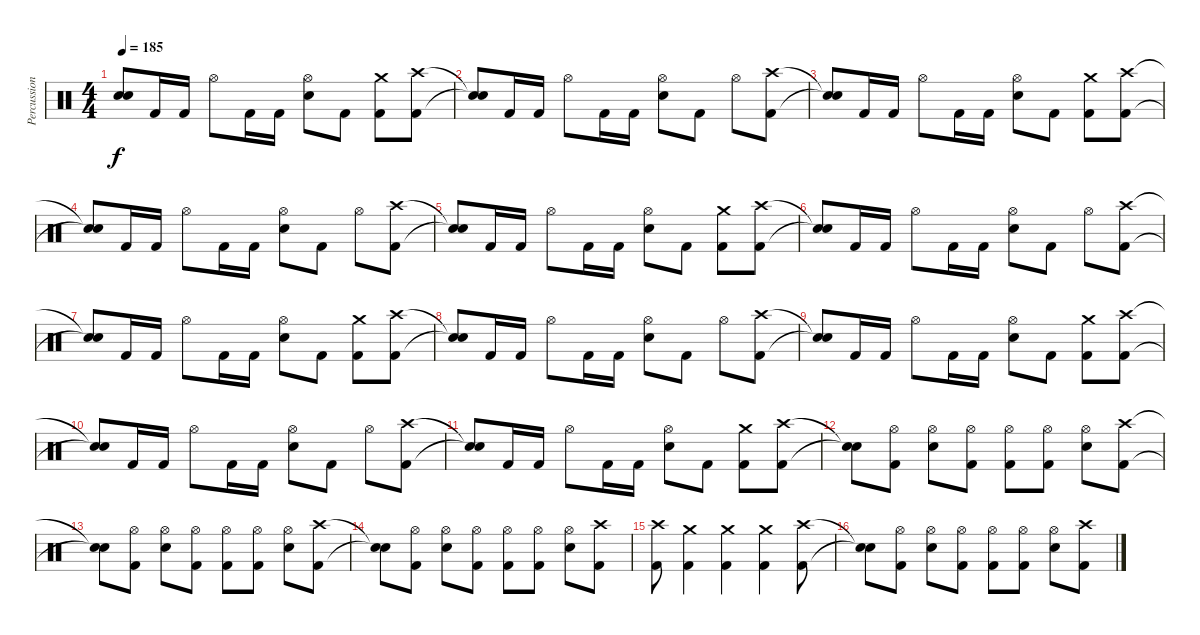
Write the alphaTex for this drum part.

\track ("Percussion" "Percussion") {instrument percussion}
\staff {score}
\articulation defaults
\ts (4 4)
\tempo 185
\clef neutral
\ks c
("Snare (hit)"{t} "Snare (hit)"{t}).8{dy f} "Kick (hit) 2".16 "Kick (hit) 2".16 "Hi-Hat (open)".8 "Kick (hit) 2".16 "Kick (hit) 2".16 ("Hi-Hat (open)" "Electric Snare (hit)").8 "Kick (hit) 2".8 ("Crash medium (hit)" "Kick (hit) 2").8 ("Crash high (hit)" "Kick (hit) 2").8 |
("Snare (hit)"{t} "Snare (hit)"{t}).8 "Kick (hit) 2".16 "Kick (hit) 2".16 "Hi-Hat (open)".8 "Kick (hit) 2".16 "Kick (hit) 2".16 ("Hi-Hat (open)" "Electric Snare (hit)").8 "Kick (hit) 2".8 "Hi-Hat (open)".8 ("Crash high (hit)" "Kick (hit) 2").8 |
("Snare (hit)"{t} "Snare (hit)"{t}).8 "Kick (hit) 2".16 "Kick (hit) 2".16 "Hi-Hat (open)".8 "Kick (hit) 2".16 "Kick (hit) 2".16 ("Hi-Hat (open)" "Electric Snare (hit)").8 "Kick (hit) 2".8 ("Crash medium (hit)" "Kick (hit) 2").8 ("Crash high (hit)" "Kick (hit) 2").8 |
("Snare (hit)"{t} "Snare (hit)"{t}).8 "Kick (hit) 2".16 "Kick (hit) 2".16 "Hi-Hat (open)".8 "Kick (hit) 2".16 "Kick (hit) 2".16 ("Hi-Hat (open)" "Electric Snare (hit)").8 "Kick (hit) 2".8 "Hi-Hat (open)".8 ("Crash high (hit)" "Kick (hit) 2").8 |
("Snare (hit)"{t} "Snare (hit)"{t}).8 "Kick (hit) 2".16 "Kick (hit) 2".16 "Hi-Hat (open)".8 "Kick (hit) 2".16 "Kick (hit) 2".16 ("Hi-Hat (open)" "Electric Snare (hit)").8 "Kick (hit) 2".8 ("Crash medium (hit)" "Kick (hit) 2").8 ("Crash high (hit)" "Kick (hit) 2").8 |
("Snare (hit)"{t} "Snare (hit)"{t}).8 "Kick (hit) 2".16 "Kick (hit) 2".16 "Hi-Hat (open)".8 "Kick (hit) 2".16 "Kick (hit) 2".16 ("Hi-Hat (open)" "Electric Snare (hit)").8 "Kick (hit) 2".8 "Hi-Hat (open)".8 ("Crash high (hit)" "Kick (hit) 2").8 |
("Snare (hit)"{t} "Snare (hit)"{t}).8 "Kick (hit) 2".16 "Kick (hit) 2".16 "Hi-Hat (open)".8 "Kick (hit) 2".16 "Kick (hit) 2".16 ("Hi-Hat (open)" "Electric Snare (hit)").8 "Kick (hit) 2".8 ("Crash medium (hit)" "Kick (hit) 2").8 ("Crash high (hit)" "Kick (hit) 2").8 |
("Snare (hit)"{t} "Snare (hit)"{t}).8 "Kick (hit) 2".16 "Kick (hit) 2".16 "Hi-Hat (open)".8 "Kick (hit) 2".16 "Kick (hit) 2".16 ("Hi-Hat (open)" "Electric Snare (hit)").8 "Kick (hit) 2".8 "Hi-Hat (open)".8 ("Crash high (hit)" "Kick (hit) 2").8 |
("Snare (hit)"{t} "Snare (hit)"{t}).8 "Kick (hit) 2".16 "Kick (hit) 2".16 "Hi-Hat (open)".8 "Kick (hit) 2".16 "Kick (hit) 2".16 ("Hi-Hat (open)" "Electric Snare (hit)").8 "Kick (hit) 2".8 ("Crash medium (hit)" "Kick (hit) 2").8 ("Crash high (hit)" "Kick (hit) 2").8 |
("Snare (hit)"{t} "Snare (hit)"{t}).8 "Kick (hit) 2".16 "Kick (hit) 2".16 "Hi-Hat (open)".8 "Kick (hit) 2".16 "Kick (hit) 2".16 ("Hi-Hat (open)" "Electric Snare (hit)").8 "Kick (hit) 2".8 "Hi-Hat (open)".8 ("Crash high (hit)" "Kick (hit) 2").8 |
("Snare (hit)"{t} "Snare (hit)"{t}).8 "Kick (hit) 2".16 "Kick (hit) 2".16 "Hi-Hat (open)".8 "Kick (hit) 2".16 "Kick (hit) 2".16 ("Hi-Hat (open)" "Electric Snare (hit)").8 "Kick (hit) 2".8 ("Crash medium (hit)" "Kick (hit) 2").8 ("Crash high (hit)" "Kick (hit) 2").8 |
("Snare (hit)"{t} "Snare (hit)"{t}).8 ("Hi-Hat (open)" "Kick (hit) 2").8 ("Hi-Hat (open)" "Electric Snare (hit)").8 ("Hi-Hat (open)" "Kick (hit) 2").8 ("Hi-Hat (open)" "Kick (hit) 2").8 ("Hi-Hat (open)" "Kick (hit) 2").8 ("Hi-Hat (open)" "Electric Snare (hit)").8 ("Crash high (hit)" "Kick (hit) 2").8 |
("Snare (hit)"{t} "Snare (hit)"{t}).8 ("Hi-Hat (open)" "Kick (hit) 2").8 ("Hi-Hat (open)" "Electric Snare (hit)").8 ("Hi-Hat (open)" "Kick (hit) 2").8 ("Hi-Hat (open)" "Kick (hit) 2").8 ("Hi-Hat (open)" "Kick (hit) 2").8 ("Hi-Hat (open)" "Electric Snare (hit)").8 ("Crash high (hit)" "Kick (hit) 2").8 |
("Snare (hit)"{t} "Snare (hit)"{t}).8 ("Hi-Hat (open)" "Kick (hit) 2").8 ("Hi-Hat (open)" "Electric Snare (hit)").8 ("Hi-Hat (open)" "Kick (hit) 2").8 ("Hi-Hat (open)" "Kick (hit) 2").8 ("Hi-Hat (open)" "Kick (hit) 2").8 ("Hi-Hat (open)" "Electric Snare (hit)").8 ("Crash high (hit)" "Kick (hit) 2").8 |
("Crash high (hit)" "Kick (hit) 2").8 ("Crash medium (hit)" "Kick (hit) 2").4 ("Crash medium (hit)" "Kick (hit) 2").4 ("Crash medium (hit)" "Kick (hit) 2").4 ("Crash high (hit)" "Kick (hit) 2").8 |
("Snare (hit)"{t} "Snare (hit)"{t}).8 ("Hi-Hat (open)" "Kick (hit) 2").8 ("Hi-Hat (open)" "Electric Snare (hit)").8 ("Hi-Hat (open)" "Kick (hit) 2").8 ("Hi-Hat (open)" "Kick (hit) 2").8 ("Hi-Hat (open)" "Kick (hit) 2").8 ("Hi-Hat (open)" "Electric Snare (hit)").8 ("Crash high (hit)" "Kick (hit) 2").8
